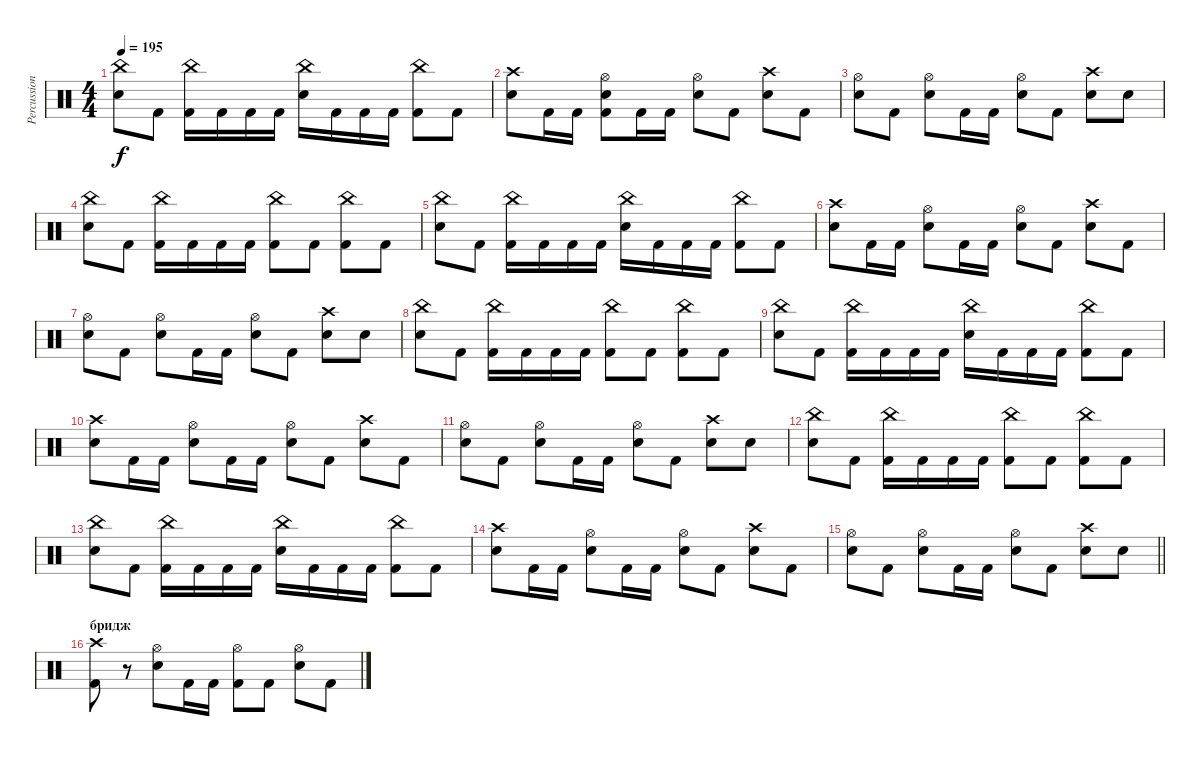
\track ("Percussions" "Percussion") {instrument percussion}
\staff {score}
\articulation defaults
\ts (4 4)
\tempo 195
\clef neutral
\ks c
("China (hit)" "Electric Snare (hit)").8{dy f} "Kick (hit) 2".8 ("China (hit)" "Kick (hit) 2").16 "Kick (hit) 2".16 "Kick (hit) 2".16 "Kick (hit) 2".16 ("China (hit)" "Electric Snare (hit)").16 "Kick (hit) 2".16 "Kick (hit) 2".16 "Kick (hit) 2".16 ("China (hit)" "Kick (hit) 2").8 "Kick (hit) 2".8 |
("Crash high (hit)" "Electric Snare (hit)").8 "Kick (hit) 2".16 "Kick (hit) 2".16 ("Hi-Hat (open)" "Electric Snare (hit)" "Kick (hit) 2").8 "Kick (hit) 2".16 "Kick (hit) 2".16 ("Hi-Hat (open)" "Electric Snare (hit)").8 "Kick (hit) 2".8 ("Crash high (hit)" "Electric Snare (hit)").8 "Kick (hit) 2".8 |
("Hi-Hat (open)" "Electric Snare (hit)").8 "Kick (hit) 2".8 ("Hi-Hat (open)" "Electric Snare (hit)").8 "Kick (hit) 2".16 "Kick (hit) 2".16 ("Hi-Hat (open)" "Electric Snare (hit)").8 "Kick (hit) 2".8 ("Crash high (hit)" "Electric Snare (hit)").8 "Electric Snare (hit)".8 |
("China (hit)" "Electric Snare (hit)").8 "Kick (hit) 2".8 ("China (hit)" "Kick (hit) 2").16 "Kick (hit) 2".16 "Kick (hit) 2".16 "Kick (hit) 2".16 ("China (hit)" "Kick (hit) 2").8 "Kick (hit) 2".8 ("China (hit)" "Kick (hit) 2").8 "Kick (hit) 2".8 |
("China (hit)" "Electric Snare (hit)").8 "Kick (hit) 2".8 ("China (hit)" "Kick (hit) 2").16 "Kick (hit) 2".16 "Kick (hit) 2".16 "Kick (hit) 2".16 ("China (hit)" "Electric Snare (hit)").16 "Kick (hit) 2".16 "Kick (hit) 2".16 "Kick (hit) 2".16 ("China (hit)" "Kick (hit) 2").8 "Kick (hit) 2".8 |
("Crash high (hit)" "Electric Snare (hit)").8 "Kick (hit) 2".16 "Kick (hit) 2".16 ("Hi-Hat (open)" "Electric Snare (hit)").8 "Kick (hit) 2".16 "Kick (hit) 2".16 ("Hi-Hat (open)" "Electric Snare (hit)").8 "Kick (hit) 2".8 ("Crash high (hit)" "Electric Snare (hit)").8 "Kick (hit) 2".8 |
("Hi-Hat (open)" "Electric Snare (hit)").8 "Kick (hit) 2".8 ("Hi-Hat (open)" "Electric Snare (hit)").8 "Kick (hit) 2".16 "Kick (hit) 2".16 ("Hi-Hat (open)" "Electric Snare (hit)").8 "Kick (hit) 2".8 ("Crash high (hit)" "Electric Snare (hit)").8 "Electric Snare (hit)".8 |
("China (hit)" "Electric Snare (hit)").8 "Kick (hit) 2".8 ("China (hit)" "Kick (hit) 2").16 "Kick (hit) 2".16 "Kick (hit) 2".16 "Kick (hit) 2".16 ("China (hit)" "Kick (hit) 2").8 "Kick (hit) 2".8 ("China (hit)" "Kick (hit) 2").8 "Kick (hit) 2".8 |
("China (hit)" "Electric Snare (hit)").8 "Kick (hit) 2".8 ("China (hit)" "Kick (hit) 2").16 "Kick (hit) 2".16 "Kick (hit) 2".16 "Kick (hit) 2".16 ("China (hit)" "Electric Snare (hit)").16 "Kick (hit) 2".16 "Kick (hit) 2".16 "Kick (hit) 2".16 ("China (hit)" "Kick (hit) 2").8 "Kick (hit) 2".8 |
("Crash high (hit)" "Electric Snare (hit)").8 "Kick (hit) 2".16 "Kick (hit) 2".16 ("Hi-Hat (open)" "Electric Snare (hit)").8 "Kick (hit) 2".16 "Kick (hit) 2".16 ("Hi-Hat (open)" "Electric Snare (hit)").8 "Kick (hit) 2".8 ("Crash high (hit)" "Electric Snare (hit)").8 "Kick (hit) 2".8 |
("Hi-Hat (open)" "Electric Snare (hit)").8 "Kick (hit) 2".8 ("Hi-Hat (open)" "Electric Snare (hit)").8 "Kick (hit) 2".16 "Kick (hit) 2".16 ("Hi-Hat (open)" "Electric Snare (hit)").8 "Kick (hit) 2".8 ("Crash high (hit)" "Electric Snare (hit)").8 "Electric Snare (hit)".8 |
("China (hit)" "Electric Snare (hit)").8 "Kick (hit) 2".8 ("China (hit)" "Kick (hit) 2").16 "Kick (hit) 2".16 "Kick (hit) 2".16 "Kick (hit) 2".16 ("China (hit)" "Kick (hit) 2").8 "Kick (hit) 2".8 ("China (hit)" "Kick (hit) 2").8 "Kick (hit) 2".8 |
("China (hit)" "Electric Snare (hit)").8 "Kick (hit) 2".8 ("China (hit)" "Kick (hit) 2").16 "Kick (hit) 2".16 "Kick (hit) 2".16 "Kick (hit) 2".16 ("China (hit)" "Electric Snare (hit)").16 "Kick (hit) 2".16 "Kick (hit) 2".16 "Kick (hit) 2".16 ("China (hit)" "Kick (hit) 2").8 "Kick (hit) 2".8 |
("Crash high (hit)" "Electric Snare (hit)").8 "Kick (hit) 2".16 "Kick (hit) 2".16 ("Hi-Hat (open)" "Electric Snare (hit)").8 "Kick (hit) 2".16 "Kick (hit) 2".16 ("Hi-Hat (open)" "Electric Snare (hit)").8 "Kick (hit) 2".8 ("Crash high (hit)" "Electric Snare (hit)").8 "Kick (hit) 2".8 |
\barLineRight lightlight
("Hi-Hat (open)" "Electric Snare (hit)").8 "Kick (hit) 2".8 ("Hi-Hat (open)" "Electric Snare (hit)").8 "Kick (hit) 2".16 "Kick (hit) 2".16 ("Hi-Hat (open)" "Electric Snare (hit)").8 "Kick (hit) 2".8 ("Crash high (hit)" "Electric Snare (hit)").8 "Electric Snare (hit)".8 |
\section ("" "бридж")
("Crash high (hit)" "Kick (hit) 2").8 r.8 ("Hi-Hat (open)" "Electric Snare (hit)").8 "Kick (hit) 2".16 "Kick (hit) 2".16 ("Hi-Hat (open)" "Kick (hit) 2").8 "Kick (hit) 2".8 ("Hi-Hat (open)" "Electric Snare (hit)").8 "Kick (hit) 2".8
